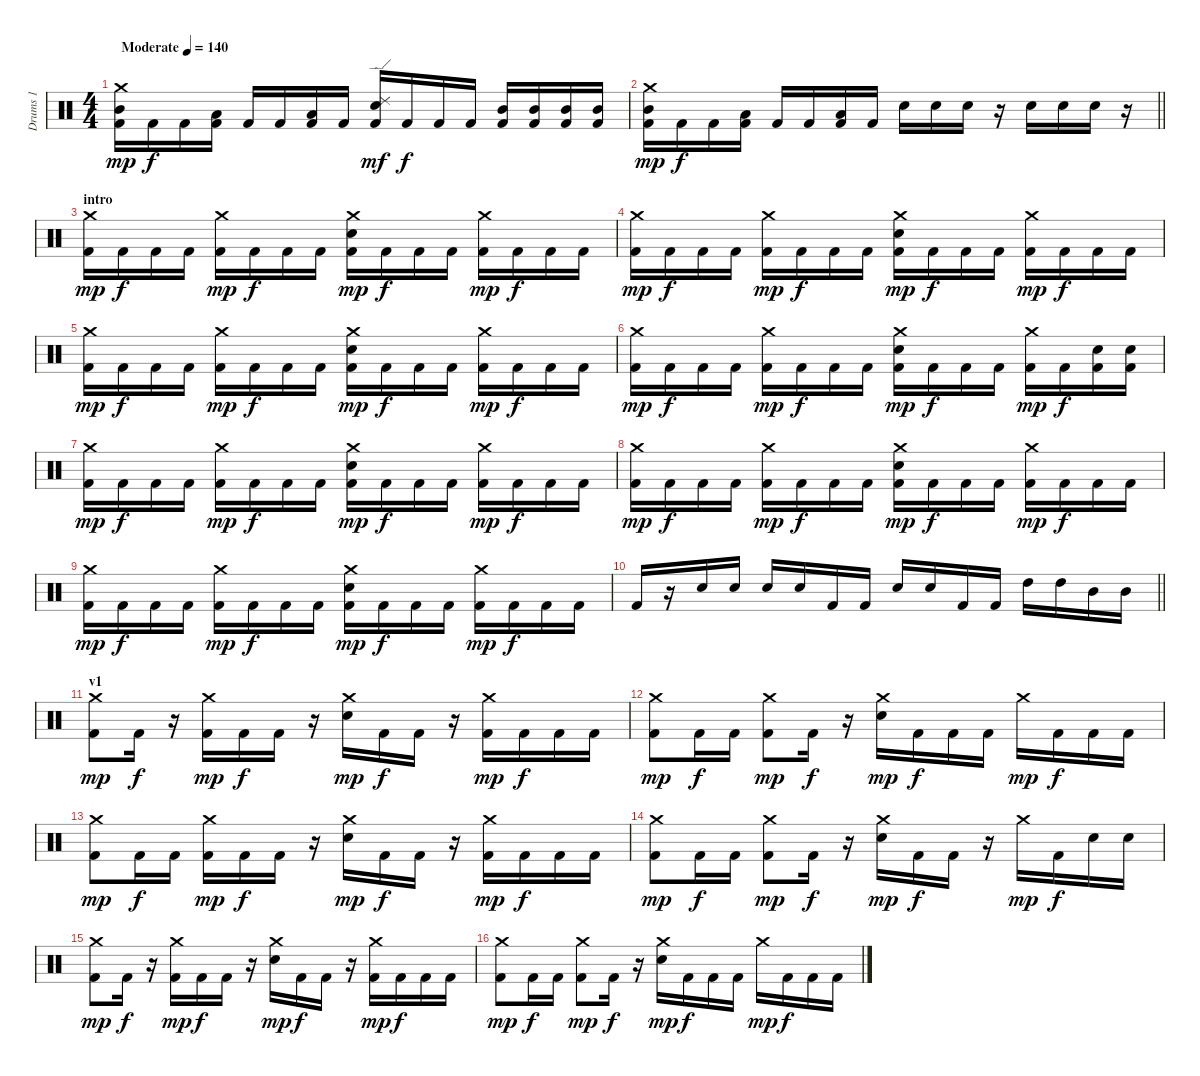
\track ("Drums 1" "Drums 1") {instrument percussion}
\staff {score}
\articulation defaults
\ts (4 4)
\tempo (140 "Moderate")
\clef neutral
\ks c
("Crash medium (hit)" "Mid Tom (hit)" "Kick (hit) 2").16{dy mp} "Kick (hit) 2".16{dy f} "Kick (hit) 2".16 ("Low Tom (hit)" "Kick (hit) 2").16 "Kick (hit) 2".16 "Kick (hit) 2".16 ("Low Tom (hit)" "Kick (hit) 2").16 "Kick (hit) 2".16 ("Ride (edge) 2" "Kick (hit) 2" "Snare (hit) 2").16{dy mf} "Kick (hit) 2".16{dy f} "Kick (hit) 2".16 "Kick (hit) 2".16 ("Kick (hit) 2" "Mid Tom (hit)").16 ("Kick (hit) 2" "Mid Tom (hit)").16 ("Kick (hit) 2" "Mid Tom (hit)").16 ("Kick (hit) 2" "Mid Tom (hit)").16 |
\barLineRight lightlight
("Crash medium (hit)" "Mid Tom (hit)" "Kick (hit) 2").16{dy mp} "Kick (hit) 2".16{dy f} "Kick (hit) 2".16 ("Low Tom (hit)" "Kick (hit) 2").16 "Kick (hit) 2".16 "Kick (hit) 2".16 ("Low Tom (hit)" "Kick (hit) 2").16 "Kick (hit) 2".16 "Snare (hit) 2".16 "Snare (hit) 2".16 "Snare (hit) 2".16 r.16 "Snare (hit) 2".16 "Snare (hit) 2".16 "Snare (hit) 2".16 r.16 |
\section ("" "intro")
("Kick (hit) 2" "Crash medium (hit)").16{dy mp} "Kick (hit) 2".16{dy f} "Kick (hit) 2".16 "Kick (hit) 2".16 ("Crash medium (hit)" "Kick (hit) 2").16{dy mp} "Kick (hit) 2".16{dy f} "Kick (hit) 2".16 "Kick (hit) 2".16 ("Kick (hit) 2" "Snare (hit) 2" "Crash medium (hit)").16{dy mp} "Kick (hit) 2".16{dy f} "Kick (hit) 2".16 "Kick (hit) 2".16 ("Crash medium (hit)" "Kick (hit) 2").16{dy mp} "Kick (hit) 2".16{dy f} "Kick (hit) 2".16 "Kick (hit) 2".16 |
("Kick (hit) 2" "Crash medium (hit)").16{dy mp} "Kick (hit) 2".16{dy f} "Kick (hit) 2".16 "Kick (hit) 2".16 ("Kick (hit) 2" "Crash medium (hit)").16{dy mp} "Kick (hit) 2".16{dy f} "Kick (hit) 2".16 "Kick (hit) 2".16 ("Crash medium (hit)" "Snare (hit) 2" "Kick (hit) 2").16{dy mp} "Kick (hit) 2".16{dy f} "Kick (hit) 2".16 "Kick (hit) 2".16 ("Crash medium (hit)" "Kick (hit) 2").16{dy mp} "Kick (hit) 2".16{dy f} "Kick (hit) 2".16 "Kick (hit) 2".16 |
("Crash medium (hit)" "Kick (hit) 2").16{dy mp} "Kick (hit) 2".16{dy f} "Kick (hit) 2".16 "Kick (hit) 2".16 ("Crash medium (hit)" "Kick (hit) 2").16{dy mp} "Kick (hit) 2".16{dy f} "Kick (hit) 2".16 "Kick (hit) 2".16 ("Crash medium (hit)" "Kick (hit) 2" "Snare (hit) 2").16{dy mp} "Kick (hit) 2".16{dy f} "Kick (hit) 2".16 "Kick (hit) 2".16 ("Crash medium (hit)" "Kick (hit) 2").16{dy mp} "Kick (hit) 2".16{dy f} "Kick (hit) 2".16 "Kick (hit) 2".16 |
("Crash medium (hit)" "Kick (hit) 2").16{dy mp} "Kick (hit) 2".16{dy f} "Kick (hit) 2".16 "Kick (hit) 2".16 ("Crash medium (hit)" "Kick (hit) 2").16{dy mp} "Kick (hit) 2".16{dy f} "Kick (hit) 2".16 "Kick (hit) 2".16 ("Crash medium (hit)" "Kick (hit) 2" "Snare (hit) 2").16{dy mp} "Kick (hit) 2".16{dy f} "Kick (hit) 2".16 "Kick (hit) 2".16 ("Crash medium (hit)" "Kick (hit) 2").16{dy mp} "Kick (hit) 2".16{dy f} ("Snare (hit) 2" "Kick (hit) 2").16 ("Snare (hit) 2" "Kick (hit) 2").16 |
("Kick (hit) 2" "Crash medium (hit)").16{dy mp} "Kick (hit) 2".16{dy f} "Kick (hit) 2".16 "Kick (hit) 2".16 ("Crash medium (hit)" "Kick (hit) 2").16{dy mp} "Kick (hit) 2".16{dy f} "Kick (hit) 2".16 "Kick (hit) 2".16 ("Kick (hit) 2" "Snare (hit) 2" "Crash medium (hit)").16{dy mp} "Kick (hit) 2".16{dy f} "Kick (hit) 2".16 "Kick (hit) 2".16 ("Crash medium (hit)" "Kick (hit) 2").16{dy mp} "Kick (hit) 2".16{dy f} "Kick (hit) 2".16 "Kick (hit) 2".16 |
("Kick (hit) 2" "Crash medium (hit)").16{dy mp} "Kick (hit) 2".16{dy f} "Kick (hit) 2".16 "Kick (hit) 2".16 ("Kick (hit) 2" "Crash medium (hit)").16{dy mp} "Kick (hit) 2".16{dy f} "Kick (hit) 2".16 "Kick (hit) 2".16 ("Kick (hit) 2" "Snare (hit) 2" "Crash medium (hit)").16{dy mp} "Kick (hit) 2".16{dy f} "Kick (hit) 2".16 "Kick (hit) 2".16 ("Kick (hit) 2" "Crash medium (hit)").16{dy mp} "Kick (hit) 2".16{dy f} "Kick (hit) 2".16 "Kick (hit) 2".16 |
("Kick (hit) 2" "Crash medium (hit)").16{dy mp} "Kick (hit) 2".16{dy f} "Kick (hit) 2".16 "Kick (hit) 2".16 ("Crash medium (hit)" "Kick (hit) 2").16{dy mp} "Kick (hit) 2".16{dy f} "Kick (hit) 2".16 "Kick (hit) 2".16 ("Kick (hit) 2" "Snare (hit) 2" "Crash medium (hit)").16{dy mp} "Kick (hit) 2".16{dy f} "Kick (hit) 2".16 "Kick (hit) 2".16 ("Crash medium (hit)" "Kick (hit) 2").16{dy mp} "Kick (hit) 2".16{dy f} "Kick (hit) 2".16 "Kick (hit) 2".16 |
\barLineRight lightlight "Kick (hit) 2".16
r.16 "Snare (hit) 2".16 "Snare (hit) 2".16 "Snare (hit) 2".16 "Snare (hit) 2".16 "Kick (hit) 2".16 "Kick (hit) 2".16 "Snare (hit) 2".16 "Snare (hit) 2".16 "Kick (hit) 2".16 "Kick (hit) 2".16 "High Tom (hit)".16 "High Tom (hit)".16 "Mid Tom (hit)".16 "Mid Tom (hit)".16 |
\section ("" "v1")
("Kick (hit) 2" "Crash medium (hit)").8{dy mp} "Kick (hit) 2".16{dy f} r.16 ("Crash medium (hit)" "Kick (hit) 2").16{dy mp} "Kick (hit) 2".16{dy f} "Kick (hit) 2".16 r.16 ("Crash medium (hit)" "Snare (hit) 2").16{dy mp} "Kick (hit) 2".16{dy f} "Kick (hit) 2".16 r.16 ("Kick (hit) 2" "Crash medium (hit)").16{dy mp} "Kick (hit) 2".16{dy f} "Kick (hit) 2".16 "Kick (hit) 2".16 |
("Crash medium (hit)" "Kick (hit) 2").8{dy mp} "Kick (hit) 2".16{dy f} "Kick (hit) 2".16 ("Kick (hit) 2" "Crash medium (hit)").8{dy mp} "Kick (hit) 2".16{dy f} r.16 ("Crash medium (hit)" "Snare (hit) 2").16{dy mp} "Kick (hit) 2".16{dy f} "Kick (hit) 2".16 "Kick (hit) 2".16 "Crash medium (hit)".16{dy mp} "Kick (hit) 2".16{dy f} "Kick (hit) 2".16 "Kick (hit) 2".16 |
("Crash medium (hit)" "Kick (hit) 2").8{dy mp} "Kick (hit) 2".16{dy f} "Kick (hit) 2".16 ("Kick (hit) 2" "Crash medium (hit)").16{dy mp} "Kick (hit) 2".16{dy f} "Kick (hit) 2".16 r.16 ("Crash medium (hit)" "Snare (hit) 2").16{dy mp} "Kick (hit) 2".16{dy f} "Kick (hit) 2".16 r.16 ("Kick (hit) 2" "Crash medium (hit)").16{dy mp} "Kick (hit) 2".16{dy f} "Kick (hit) 2".16 "Kick (hit) 2".16 |
("Crash medium (hit)" "Kick (hit) 2").8{dy mp} "Kick (hit) 2".16{dy f} "Kick (hit) 2".16 ("Kick (hit) 2" "Crash medium (hit)").8{dy mp} "Kick (hit) 2".16{dy f} r.16 ("Crash medium (hit)" "Snare (hit) 2").16{dy mp} "Kick (hit) 2".16{dy f} "Kick (hit) 2".16 r.16 "Crash medium (hit)".16{dy mp} "Kick (hit) 2".16{dy f} "Snare (hit) 2".16 "Snare (hit) 2".16 |
("Crash medium (hit)" "Kick (hit) 2").8{dy mp} "Kick (hit) 2".16{dy f} r.16 ("Kick (hit) 2" "Crash medium (hit)").16{dy mp} "Kick (hit) 2".16{dy f} "Kick (hit) 2".16 r.16 ("Crash medium (hit)" "Snare (hit) 2").16{dy mp} "Kick (hit) 2".16{dy f} "Kick (hit) 2".16 r.16 ("Kick (hit) 2" "Crash medium (hit)").16{dy mp} "Kick (hit) 2".16{dy f} "Kick (hit) 2".16 "Kick (hit) 2".16 |
("Crash medium (hit)" "Kick (hit) 2").8{dy mp} "Kick (hit) 2".16{dy f} "Kick (hit) 2".16 ("Kick (hit) 2" "Crash medium (hit)").8{dy mp} "Kick (hit) 2".16{dy f} r.16 ("Snare (hit) 2" "Crash medium (hit)").16{dy mp} "Kick (hit) 2".16{dy f} "Kick (hit) 2".16 "Kick (hit) 2".16 "Crash medium (hit)".16{dy mp} "Kick (hit) 2".16{dy f} "Kick (hit) 2".16 "Kick (hit) 2".16
